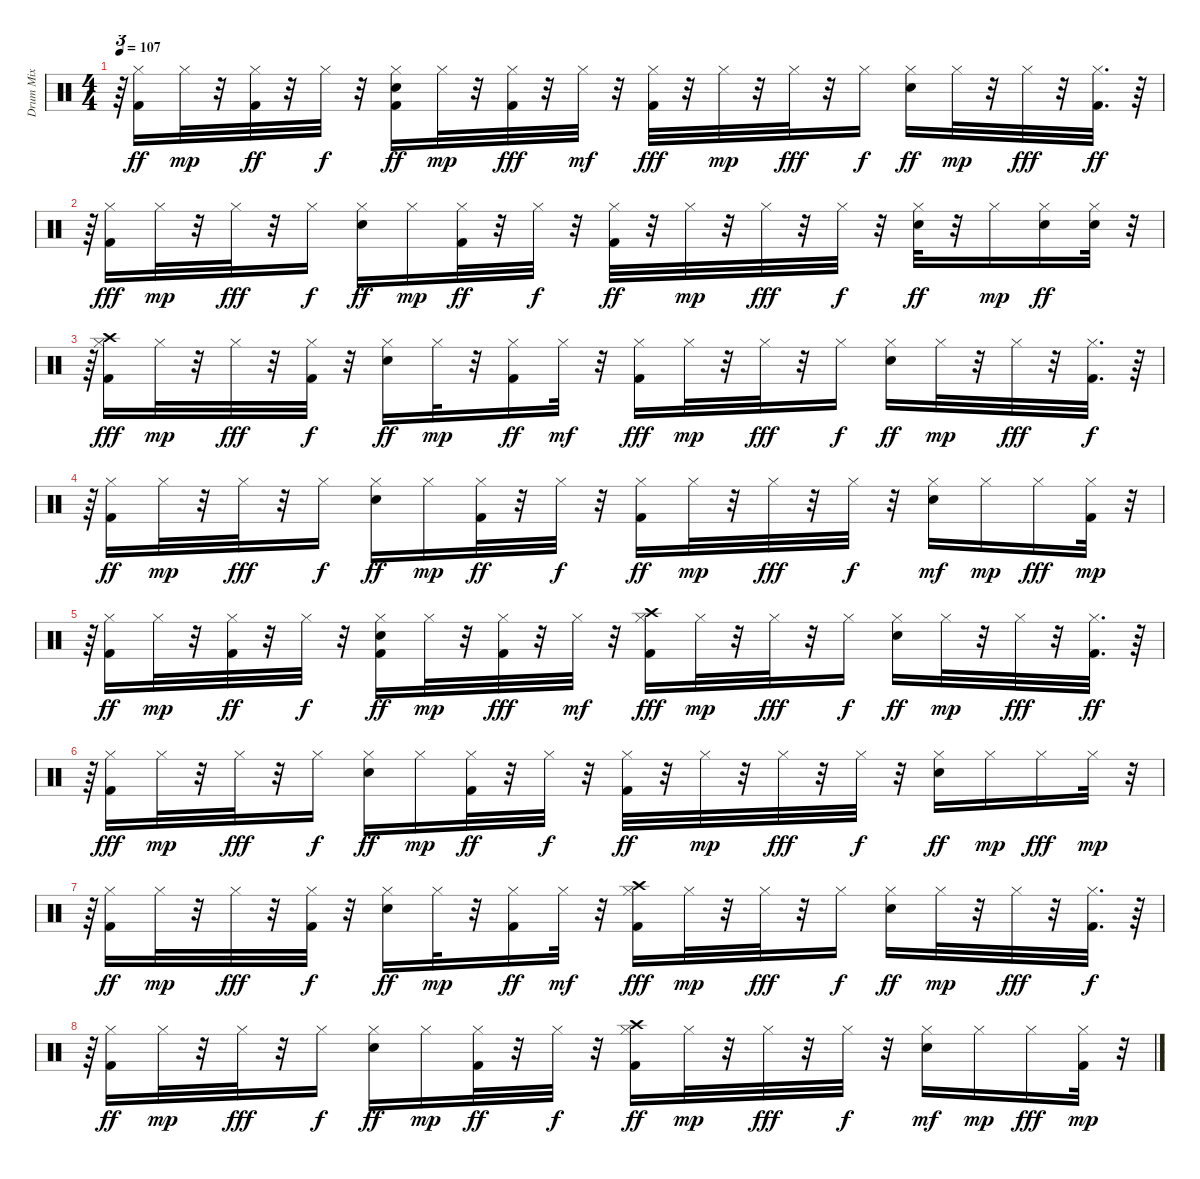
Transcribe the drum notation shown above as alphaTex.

\track ("Drum Mix" "Drum Mix") {instrument percussion}
\staff {score}
\articulation defaults
\ts (4 4)
\tempo 107
\clef neutral
\ks c
r.64{tu (3 2) dy mp} ("Hi-Hat (closed)" "Kick (hit) 2").16{dy ff} "Hi-Hat (closed)".32{dy mp} r.32 ("Hi-Hat (closed)" "Kick (hit) 2").32{dy ff} r.32 "Hi-Hat (closed)".32{dy f} r.32 ("Hi-Hat (closed)" "Snare (hit) 2" "Kick (hit) 2").16{dy ff} "Hi-Hat (closed)".32{dy mp} r.32 ("Hi-Hat (closed)" "Kick (hit) 2").32{dy fff} r.32 "Hi-Hat (closed)".32{dy mf} r.32 ("Hi-Hat (closed)" "Kick (hit) 2").32{dy fff} r.32 "Hi-Hat (closed)".32{dy mp} r.32 "Hi-Hat (closed)".32{dy fff} r.32 "Hi-Hat (closed)".16{dy f} ("Hi-Hat (closed)" "Snare (hit) 2").16{dy ff} "Hi-Hat (closed)".32{dy mp} r.32 "Hi-Hat (closed)".32{dy fff} r.32 ("Hi-Hat (closed)" "Kick (hit) 2").32{d dy ff} r.64 |
r.64{tu (3 2)} ("Hi-Hat (closed)" "Kick (hit) 2").16{dy fff} "Hi-Hat (closed)".32{dy mp} r.32 "Hi-Hat (closed)".32{dy fff} r.32 "Hi-Hat (closed)".16{dy f} ("Hi-Hat (closed)" "Snare (hit) 2").16{dy ff} "Hi-Hat (closed)".16{dy mp} ("Hi-Hat (closed)" "Kick (hit) 2").32{dy ff} r.32 "Hi-Hat (closed)".32{dy f} r.32 ("Hi-Hat (closed)" "Kick (hit) 2").32{dy ff} r.32 "Hi-Hat (closed)".32{dy mp} r.32 "Hi-Hat (closed)".32{dy fff} r.32 "Hi-Hat (closed)".32{dy f} r.32 ("Hi-Hat (closed)" "Snare (hit) 2").32{dy ff} r.32 "Hi-Hat (closed)".16{dy mp} ("Hi-Hat (closed)" "Snare (hit) 2").16{dy ff} ("Hi-Hat (closed)" "Snare (hit) 2").32 r.32{tu (3 2)} |
r.64{tu (3 2)} ("Hi-Hat (closed)" "Kick (hit) 2" "Crash high (hit)").16{dy fff} "Hi-Hat (closed)".32{dy mp} r.32 "Hi-Hat (closed)".32{dy fff} r.32 ("Hi-Hat (closed)" "Kick (hit) 2").32{dy f} r.32 ("Hi-Hat (closed)" "Snare (hit) 2").16{dy ff} "Hi-Hat (closed)".32{dy mp} r.32 ("Hi-Hat (closed)" "Kick (hit) 2").16{dy ff} "Hi-Hat (closed)".32{dy mf} r.32 ("Hi-Hat (closed)" "Kick (hit) 2").16{dy fff} "Hi-Hat (closed)".32{dy mp} r.32 "Hi-Hat (closed)".32{dy fff} r.32 "Hi-Hat (closed)".16{dy f} ("Hi-Hat (closed)" "Snare (hit) 2").16{dy ff} "Hi-Hat (closed)".32{dy mp} r.32 "Hi-Hat (closed)".32{dy fff} r.32 ("Hi-Hat (closed)" "Kick (hit) 2").32{d dy f} r.64 |
r.64{tu (3 2)} ("Hi-Hat (closed)" "Kick (hit) 2").16{dy ff} "Hi-Hat (closed)".32{dy mp} r.32 "Hi-Hat (closed)".32{dy fff} r.32 "Hi-Hat (closed)".16{dy f} ("Hi-Hat (closed)" "Snare (hit) 2").16{dy ff} "Hi-Hat (closed)".16{dy mp} ("Hi-Hat (closed)" "Kick (hit) 2").32{dy ff} r.32 "Hi-Hat (closed)".32{dy f} r.32 ("Hi-Hat (closed)" "Kick (hit) 2").16{dy ff} "Hi-Hat (closed)".32{dy mp} r.32 "Hi-Hat (closed)".32{dy fff} r.32 "Hi-Hat (closed)".32{dy f} r.32 ("Hi-Hat (closed)" "Snare (hit) 2").16{dy mf} "Hi-Hat (closed)".16{dy mp} "Hi-Hat (closed)".16{dy fff} ("Hi-Hat (closed)" "Kick (hit) 2").32{dy mp} r.32{tu (3 2)} |
r.64{tu (3 2)} ("Hi-Hat (closed)" "Kick (hit) 2").16{dy ff} "Hi-Hat (closed)".32{dy mp} r.32 ("Hi-Hat (closed)" "Kick (hit) 2").32{dy ff} r.32 "Hi-Hat (closed)".32{dy f} r.32 ("Hi-Hat (closed)" "Snare (hit) 2" "Kick (hit) 2").16{dy ff} "Hi-Hat (closed)".32{dy mp} r.32 ("Hi-Hat (closed)" "Kick (hit) 2").32{dy fff} r.32 "Hi-Hat (closed)".32{dy mf} r.32 ("Hi-Hat (closed)" "Kick (hit) 2" "Crash high (hit)").16{dy fff} "Hi-Hat (closed)".32{dy mp} r.32 "Hi-Hat (closed)".32{dy fff} r.32 "Hi-Hat (closed)".16{dy f} ("Hi-Hat (closed)" "Snare (hit) 2").16{dy ff} "Hi-Hat (closed)".32{dy mp} r.32 "Hi-Hat (closed)".32{dy fff} r.32 ("Hi-Hat (closed)" "Kick (hit) 2").32{d dy ff} r.64 |
r.64{tu (3 2)} ("Hi-Hat (closed)" "Kick (hit) 2").16{dy fff} "Hi-Hat (closed)".32{dy mp} r.32 "Hi-Hat (closed)".32{dy fff} r.32 "Hi-Hat (closed)".16{dy f} ("Hi-Hat (closed)" "Snare (hit) 2").16{dy ff} "Hi-Hat (closed)".16{dy mp} ("Hi-Hat (closed)" "Kick (hit) 2").32{dy ff} r.32 "Hi-Hat (closed)".32{dy f} r.32 ("Hi-Hat (closed)" "Kick (hit) 2").32{dy ff} r.32 "Hi-Hat (closed)".32{dy mp} r.32 "Hi-Hat (closed)".32{dy fff} r.32 "Hi-Hat (closed)".32{dy f} r.32 ("Hi-Hat (closed)" "Snare (hit) 2").16{dy ff} "Hi-Hat (closed)".16{dy mp} "Hi-Hat (closed)".16{dy fff} "Hi-Hat (closed)".32{dy mp} r.32{tu (3 2)} |
r.64{tu (3 2)} ("Hi-Hat (closed)" "Kick (hit) 2").16{dy ff} "Hi-Hat (closed)".32{dy mp} r.32 "Hi-Hat (closed)".32{dy fff} r.32 ("Hi-Hat (closed)" "Kick (hit) 2").32{dy f} r.32 ("Hi-Hat (closed)" "Snare (hit) 2").16{dy ff} "Hi-Hat (closed)".32{dy mp} r.32 ("Hi-Hat (closed)" "Kick (hit) 2").16{dy ff} "Hi-Hat (closed)".32{dy mf} r.32 ("Hi-Hat (closed)" "Crash high (hit)" "Kick (hit) 2").16{dy fff} "Hi-Hat (closed)".32{dy mp} r.32 "Hi-Hat (closed)".32{dy fff} r.32 "Hi-Hat (closed)".16{dy f} ("Hi-Hat (closed)" "Snare (hit) 2").16{dy ff} "Hi-Hat (closed)".32{dy mp} r.32 "Hi-Hat (closed)".32{dy fff} r.32 ("Hi-Hat (closed)" "Kick (hit) 2").32{d dy f} r.64 |
r.64{tu (3 2)} ("Hi-Hat (closed)" "Kick (hit) 2").16{dy ff} "Hi-Hat (closed)".32{dy mp} r.32 "Hi-Hat (closed)".32{dy fff} r.32 "Hi-Hat (closed)".16{dy f} ("Hi-Hat (closed)" "Snare (hit) 2").16{dy ff} "Hi-Hat (closed)".16{dy mp} ("Hi-Hat (closed)" "Kick (hit) 2").32{dy ff} r.32 "Hi-Hat (closed)".32{dy f} r.32 ("Hi-Hat (closed)" "Crash high (hit)" "Kick (hit) 2").16{dy ff} "Hi-Hat (closed)".32{dy mp} r.32 "Hi-Hat (closed)".32{dy fff} r.32 "Hi-Hat (closed)".32{dy f} r.32 ("Hi-Hat (closed)" "Snare (hit) 2").16{dy mf} "Hi-Hat (closed)".16{dy mp} "Hi-Hat (closed)".16{dy fff} ("Hi-Hat (closed)" "Kick (hit) 2").32{dy mp} r.32{tu (3 2)}
